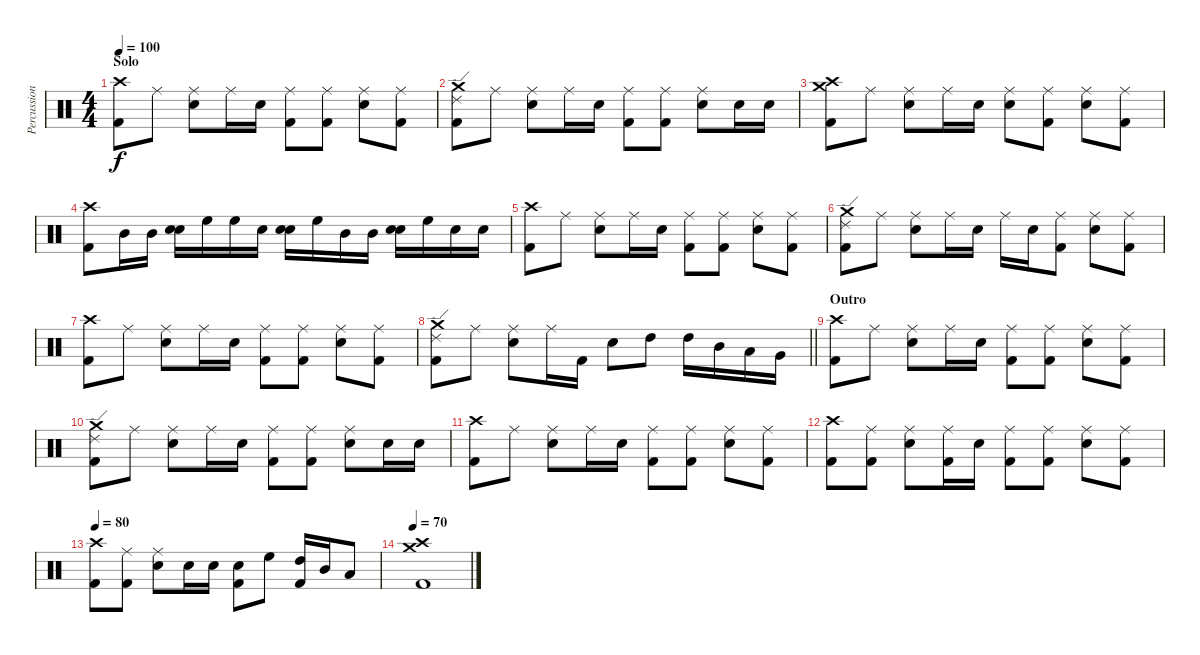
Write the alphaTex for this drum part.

\track ("Percussion" "Percussion") {instrument percussion}
\staff {score}
\articulation defaults
\ts (4 4)
\section ("" "Solo")
\tempo 100
\clef neutral
\ks c
("Crash high (hit)" "Kick (hit) 2").8{dy f} "Ride (middle)".8 ("Ride (middle)" "Snare (hit) 2").8 "Ride (middle)".16 "Snare (hit) 2".16 ("Ride (middle)" "Kick (hit) 2").8 ("Ride (middle)" "Kick (hit) 2").8 ("Ride (middle)" "Snare (hit) 2").8 ("Ride (middle)" "Kick (hit) 2").8 |
("Crash medium (hit)" "Kick (hit) 2" "Ride (edge) 2").8 "Ride (middle)".8 ("Ride (middle)" "Snare (hit) 2").8 "Ride (middle)".16 "Snare (hit) 2".16 ("Ride (middle)" "Kick (hit) 2").8 ("Ride (middle)" "Kick (hit) 2").8 ("Ride (middle)" "Snare (hit) 2").8 "Snare (hit) 2".16 "Snare (hit) 2".16 |
("Crash high (hit)" "Kick (hit) 2" "Crash medium (hit)").8 "Ride (middle)".8 ("Ride (middle)" "Snare (hit) 2").8 "Ride (middle)".16 "Snare (hit) 2".16 ("Ride (middle)" "Snare (hit) 2").8 ("Ride (middle)" "Kick (hit) 2").8 ("Ride (middle)" "Snare (hit) 2").8 ("Ride (middle)" "Kick (hit) 2").8 |
("Crash high (hit)" "Kick (hit) 2").8 "Mid Tom (hit)".16 "Mid Tom (hit)".16 ("Snare (hit) 2" "Snare (hit) 2").16 "High Floor Tom (hit)".16 "High Floor Tom (hit)".16 "Snare (hit) 2".16 ("Snare (hit) 2" "Snare (hit) 2").16 "High Floor Tom (hit)".16 "Mid Tom (hit)".16 "Mid Tom (hit)".16 ("Snare (hit) 2" "Snare (hit) 2").16 "High Floor Tom (hit)".16 "Snare (hit) 2".16 "Snare (hit) 2".16 |
("Crash high (hit)" "Kick (hit) 2").8 "Ride (middle)".8 ("Ride (middle)" "Snare (hit) 2").8 "Ride (middle)".16 "Snare (hit) 2".16 ("Ride (middle)" "Kick (hit) 2").8 ("Ride (middle)" "Kick (hit) 2").8 ("Ride (middle)" "Snare (hit) 2").8 ("Ride (middle)" "Kick (hit) 2").8 |
("Crash medium (hit)" "Kick (hit) 2" "Ride (edge) 2").8 "Ride (middle)".8 ("Ride (middle)" "Snare (hit) 2").8 "Ride (middle)".16 "Snare (hit) 2".16 "Ride (middle)".16 "Snare (hit) 2".16 ("Ride (middle)" "Kick (hit) 2").8 ("Ride (middle)" "Snare (hit) 2").8 ("Ride (middle)" "Kick (hit) 2").8 |
("Crash high (hit)" "Kick (hit) 2").8 "Ride (middle)".8 ("Ride (middle)" "Snare (hit) 2").8 "Ride (middle)".16 "Snare (hit) 2".16 ("Ride (middle)" "Kick (hit) 2").8 ("Ride (middle)" "Kick (hit) 2").8 ("Ride (middle)" "Snare (hit) 2").8 ("Ride (middle)" "Kick (hit) 2").8 |
\barLineRight lightlight
("Crash medium (hit)" "Kick (hit) 2" "Ride (edge) 2").8 "Ride (middle)".8 ("Ride (middle)" "Snare (hit) 2").8 "Ride (middle)".16 "Kick (hit) 2".16 "Snare (hit) 2".8 "High Tom (hit)".8 "High Tom (hit)".16 "Mid Tom (hit)".16 "Low Tom (hit)".16 "Very Low Tom (hit)".16 |
\section ("" "Outro")
("Crash high (hit)" "Kick (hit) 2").8 "Ride (middle)".8 ("Ride (middle)" "Snare (hit) 2").8 "Ride (middle)".16 "Snare (hit) 2".16 ("Ride (middle)" "Kick (hit) 2").8 ("Ride (middle)" "Kick (hit) 2").8 ("Ride (middle)" "Snare (hit) 2").8 ("Ride (middle)" "Kick (hit) 2").8 |
("Crash medium (hit)" "Kick (hit) 2" "Ride (edge) 2").8 "Ride (middle)".8 ("Ride (middle)" "Snare (hit) 2").8 "Ride (middle)".16 "Snare (hit) 2".16 ("Ride (middle)" "Kick (hit) 2").8 ("Ride (middle)" "Kick (hit) 2").8 ("Ride (middle)" "Snare (hit) 2").8 "Snare (hit) 2".16 "Snare (hit) 2".16 |
("Crash high (hit)" "Kick (hit) 2").8 "Ride (middle)".8 ("Ride (middle)" "Snare (hit) 2").8 "Ride (middle)".16 "Snare (hit) 2".16 ("Ride (middle)" "Kick (hit) 2").8 ("Ride (middle)" "Kick (hit) 2").8 ("Ride (middle)" "Snare (hit) 2").8 ("Ride (middle)" "Kick (hit) 2").8 |
("Crash high (hit)" "Kick (hit) 2").8 ("Ride (middle)" "Kick (hit) 2").8 ("Ride (middle)" "Snare (hit) 2").8 ("Ride (middle)" "Kick (hit) 2").16 "Snare (hit) 2".16 ("Ride (middle)" "Kick (hit) 2").8 ("Ride (middle)" "Kick (hit) 2").8 ("Ride (middle)" "Snare (hit) 2").8 ("Ride (middle)" "Kick (hit) 2").8 |
\tempo 80
("Crash high (hit)" "Kick (hit) 2").8 ("Ride (middle)" "Kick (hit) 2").8 ("Ride (middle)" "Snare (hit) 2").8 "Snare (hit) 2".16 "Snare (hit) 2".16 ("Snare (hit) 2" "Kick (hit) 2").8 "High Floor Tom (hit)".8 ("Kick (hit) 2" "High Tom (hit)").16 "Mid Tom (hit)".16 "Low Tom (hit)".8 |
\tempo 70
("Crash high (hit)" "Kick (hit) 2" "Crash medium (hit)").1
